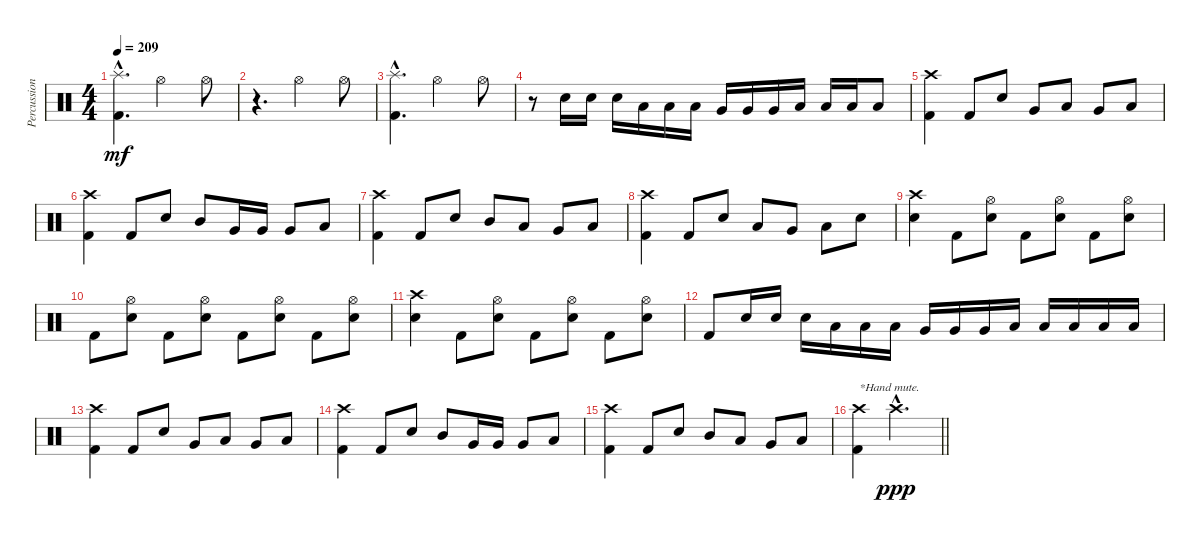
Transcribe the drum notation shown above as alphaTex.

\track ("Percussion" "Percussion") {instrument percussion}
\staff {score}
\articulation defaults
\ts (4 4)
\section ("" "")
\tempo 209
\clef neutral
\ks c
("Splash (hit)"{hac} "Kick (hit) 2"{hac}).4{d dy mf} "Hi-Hat (open)".2 "Hi-Hat (open)".8 |
r.4{d} "Hi-Hat (open)".2 "Hi-Hat (open)".8 |
("Splash (hit)"{hac} "Kick (hit) 2"{hac}).4{d} "Hi-Hat (open)".2 "Hi-Hat (open)".8 |
r.8 "Electric Snare (hit)".16 "Electric Snare (hit)".16 "Electric Snare (hit)".16 "Low Tom (hit)".16 "Low Tom (hit)".16 "Low Tom (hit)".16 "Very Low Tom (hit)".16 "Very Low Tom (hit)".16 "Very Low Tom (hit)".16 "Low Floor Tom (hit)".16 "Low Floor Tom (hit)".16 "Low Floor Tom (hit)".16 "Low Floor Tom (hit)".8 |
("Crash high (hit)" "Kick (hit) 2").4 "Kick (hit) 2".8 "Electric Snare (hit)".8 "Very Low Tom (hit)".8 "Low Tom (hit)".8 "Very Low Tom (hit)".8 "Low Floor Tom (hit)".8 |
("Crash high (hit)" "Kick (hit) 2").4 "Kick (hit) 2".8 "Electric Snare (hit)".8 "Mid Tom (hit)".8 "Very Low Tom (hit)".16 "Very Low Tom (hit)".16 "Very Low Tom (hit)".8 "Low Floor Tom (hit)".8 |
("Crash high (hit)" "Kick (hit) 2").4 "Kick (hit) 2".8 "Electric Snare (hit)".8 "Mid Tom (hit)".8 "Low Tom (hit)".8 "Very Low Tom (hit)".8 "Low Floor Tom (hit)".8 |
("Crash high (hit)" "Kick (hit) 2").4 "Kick (hit) 2".8 "Electric Snare (hit)".8 "Low Tom (hit)".8 "Very Low Tom (hit)".8 "Low Floor Tom (hit)".8 "Electric Snare (hit)".8 |
("Crash high (hit)" "Electric Snare (hit)").4 "Kick (hit) 2".8 ("Hi-Hat (open)" "Electric Snare (hit)").8 "Kick (hit) 2".8 ("Hi-Hat (open)" "Electric Snare (hit)").8 "Kick (hit) 2".8 ("Hi-Hat (open)" "Electric Snare (hit)").8 |
"Kick (hit) 2".8 ("Hi-Hat (open)" "Electric Snare (hit)").8 "Kick (hit) 2".8 ("Hi-Hat (open)" "Electric Snare (hit)").8 "Kick (hit) 2".8 ("Hi-Hat (open)" "Electric Snare (hit)").8 "Kick (hit) 2".8 ("Hi-Hat (open)" "Electric Snare (hit)").8 |
("Crash high (hit)" "Electric Snare (hit)").4 "Kick (hit) 2".8 ("Hi-Hat (open)" "Electric Snare (hit)").8 "Kick (hit) 2".8 ("Hi-Hat (open)" "Electric Snare (hit)").8 "Kick (hit) 2".8 ("Hi-Hat (open)" "Electric Snare (hit)").8 |
"Kick (hit) 2".8 "Electric Snare (hit)".16 "Electric Snare (hit)".16 "Electric Snare (hit)".16 "Low Tom (hit)".16 "Low Tom (hit)".16 "Low Tom (hit)".16 "Very Low Tom (hit)".16 "Very Low Tom (hit)".16 "Very Low Tom (hit)".16 "Low Floor Tom (hit)".16 "Low Floor Tom (hit)".16 "Low Floor Tom (hit)".16 "Low Floor Tom (hit)".16 "Low Floor Tom (hit)".16 |
("Crash high (hit)" "Kick (hit) 2").4 "Kick (hit) 2".8 "Electric Snare (hit)".8 "Very Low Tom (hit)".8 "Low Tom (hit)".8 "Very Low Tom (hit)".8 "Low Floor Tom (hit)".8 |
("Crash high (hit)" "Kick (hit) 2").4 "Kick (hit) 2".8 "Electric Snare (hit)".8 "Mid Tom (hit)".8 "Very Low Tom (hit)".16 "Very Low Tom (hit)".16 "Very Low Tom (hit)".8 "Low Floor Tom (hit)".8 |
("Crash high (hit)" "Kick (hit) 2").4 "Kick (hit) 2".8 "Electric Snare (hit)".8 "Mid Tom (hit)".8 "Low Tom (hit)".8 "Very Low Tom (hit)".8 "Low Floor Tom (hit)".8 |
\barLineRight lightlight
("Crash high (hit)" "Kick (hit) 2").4{txt "*Hand mute."} "Crash high (hit)"{hac}.2{d dy ppp}
